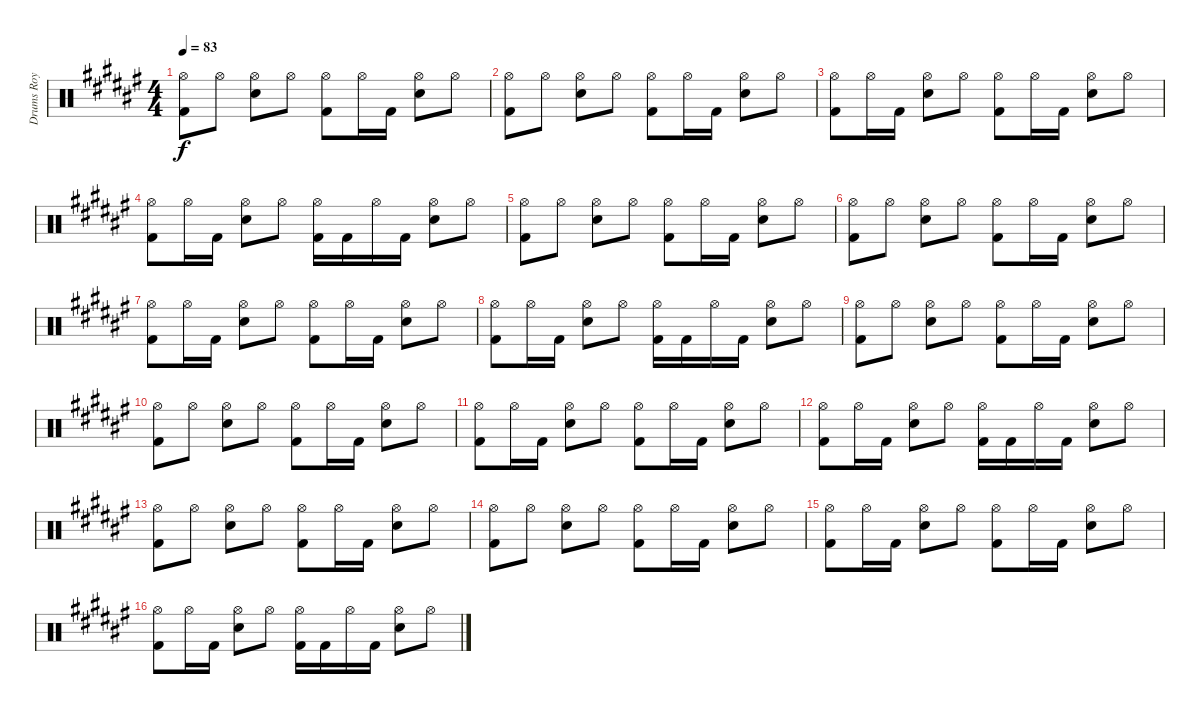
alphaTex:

\track ("Drums Roy" "Drums Roy") {instrument percussion}
\staff {score}
\articulation defaults
\ts (4 4)
\tempo 83
\clef neutral
\ks d#minor
("Hi-Hat (open)" "Kick (hit) 2").8{dy f} "Hi-Hat (open)".8 ("Hi-Hat (open)" "Electric Snare (hit)").8 "Hi-Hat (open)".8 ("Hi-Hat (open)" "Kick (hit) 2").8 "Hi-Hat (open)".16 "Kick (hit) 2".16 ("Hi-Hat (open)" "Electric Snare (hit)").8 "Hi-Hat (open)".8 |
("Hi-Hat (open)" "Kick (hit) 2").8 "Hi-Hat (open)".8 ("Hi-Hat (open)" "Electric Snare (hit)").8 "Hi-Hat (open)".8 ("Hi-Hat (open)" "Kick (hit) 2").8 "Hi-Hat (open)".16 "Kick (hit) 2".16 ("Hi-Hat (open)" "Electric Snare (hit)").8 "Hi-Hat (open)".8 |
("Hi-Hat (open)" "Kick (hit) 2").8 "Hi-Hat (open)".16 "Kick (hit) 2".16 ("Hi-Hat (open)" "Electric Snare (hit)").8 "Hi-Hat (open)".8 ("Hi-Hat (open)" "Kick (hit) 2").8 "Hi-Hat (open)".16 "Kick (hit) 2".16 ("Hi-Hat (open)" "Electric Snare (hit)").8 "Hi-Hat (open)".8 |
("Hi-Hat (open)" "Kick (hit) 2").8 "Hi-Hat (open)".16 "Kick (hit) 2".16 ("Hi-Hat (open)" "Electric Snare (hit)").8 "Hi-Hat (open)".8 ("Hi-Hat (open)" "Kick (hit) 2").16 "Kick (hit) 2".16 "Hi-Hat (open)".16 "Kick (hit) 2".16 ("Hi-Hat (open)" "Electric Snare (hit)").8 "Hi-Hat (open)".8 |
("Hi-Hat (open)" "Kick (hit) 2").8 "Hi-Hat (open)".8 ("Hi-Hat (open)" "Electric Snare (hit)").8 "Hi-Hat (open)".8 ("Hi-Hat (open)" "Kick (hit) 2").8 "Hi-Hat (open)".16 "Kick (hit) 2".16 ("Hi-Hat (open)" "Electric Snare (hit)").8 "Hi-Hat (open)".8 |
("Hi-Hat (open)" "Kick (hit) 2").8 "Hi-Hat (open)".8 ("Hi-Hat (open)" "Electric Snare (hit)").8 "Hi-Hat (open)".8 ("Hi-Hat (open)" "Kick (hit) 2").8 "Hi-Hat (open)".16 "Kick (hit) 2".16 ("Hi-Hat (open)" "Electric Snare (hit)").8 "Hi-Hat (open)".8 |
("Hi-Hat (open)" "Kick (hit) 2").8 "Hi-Hat (open)".16 "Kick (hit) 2".16 ("Hi-Hat (open)" "Electric Snare (hit)").8 "Hi-Hat (open)".8 ("Hi-Hat (open)" "Kick (hit) 2").8 "Hi-Hat (open)".16 "Kick (hit) 2".16 ("Hi-Hat (open)" "Electric Snare (hit)").8 "Hi-Hat (open)".8 |
("Hi-Hat (open)" "Kick (hit) 2").8 "Hi-Hat (open)".16 "Kick (hit) 2".16 ("Hi-Hat (open)" "Electric Snare (hit)").8 "Hi-Hat (open)".8 ("Hi-Hat (open)" "Kick (hit) 2").16 "Kick (hit) 2".16 "Hi-Hat (open)".16 "Kick (hit) 2".16 ("Hi-Hat (open)" "Electric Snare (hit)").8 "Hi-Hat (open)".8 |
("Hi-Hat (open)" "Kick (hit) 2").8 "Hi-Hat (open)".8 ("Hi-Hat (open)" "Electric Snare (hit)").8 "Hi-Hat (open)".8 ("Hi-Hat (open)" "Kick (hit) 2").8 "Hi-Hat (open)".16 "Kick (hit) 2".16 ("Hi-Hat (open)" "Electric Snare (hit)").8 "Hi-Hat (open)".8 |
("Hi-Hat (open)" "Kick (hit) 2").8 "Hi-Hat (open)".8 ("Hi-Hat (open)" "Electric Snare (hit)").8 "Hi-Hat (open)".8 ("Hi-Hat (open)" "Kick (hit) 2").8 "Hi-Hat (open)".16 "Kick (hit) 2".16 ("Hi-Hat (open)" "Electric Snare (hit)").8 "Hi-Hat (open)".8 |
("Hi-Hat (open)" "Kick (hit) 2").8 "Hi-Hat (open)".16 "Kick (hit) 2".16 ("Hi-Hat (open)" "Electric Snare (hit)").8 "Hi-Hat (open)".8 ("Hi-Hat (open)" "Kick (hit) 2").8 "Hi-Hat (open)".16 "Kick (hit) 2".16 ("Hi-Hat (open)" "Electric Snare (hit)").8 "Hi-Hat (open)".8 |
("Hi-Hat (open)" "Kick (hit) 2").8 "Hi-Hat (open)".16 "Kick (hit) 2".16 ("Hi-Hat (open)" "Electric Snare (hit)").8 "Hi-Hat (open)".8 ("Hi-Hat (open)" "Kick (hit) 2").16 "Kick (hit) 2".16 "Hi-Hat (open)".16 "Kick (hit) 2".16 ("Hi-Hat (open)" "Electric Snare (hit)").8 "Hi-Hat (open)".8 |
("Hi-Hat (open)" "Kick (hit) 2").8 "Hi-Hat (open)".8 ("Hi-Hat (open)" "Electric Snare (hit)").8 "Hi-Hat (open)".8 ("Hi-Hat (open)" "Kick (hit) 2").8 "Hi-Hat (open)".16 "Kick (hit) 2".16 ("Hi-Hat (open)" "Electric Snare (hit)").8 "Hi-Hat (open)".8 |
("Hi-Hat (open)" "Kick (hit) 2").8 "Hi-Hat (open)".8 ("Hi-Hat (open)" "Electric Snare (hit)").8 "Hi-Hat (open)".8 ("Hi-Hat (open)" "Kick (hit) 2").8 "Hi-Hat (open)".16 "Kick (hit) 2".16 ("Hi-Hat (open)" "Electric Snare (hit)").8 "Hi-Hat (open)".8 |
("Hi-Hat (open)" "Kick (hit) 2").8 "Hi-Hat (open)".16 "Kick (hit) 2".16 ("Hi-Hat (open)" "Electric Snare (hit)").8 "Hi-Hat (open)".8 ("Hi-Hat (open)" "Kick (hit) 2").8 "Hi-Hat (open)".16 "Kick (hit) 2".16 ("Hi-Hat (open)" "Electric Snare (hit)").8 "Hi-Hat (open)".8 |
("Hi-Hat (open)" "Kick (hit) 2").8 "Hi-Hat (open)".16 "Kick (hit) 2".16 ("Hi-Hat (open)" "Electric Snare (hit)").8 "Hi-Hat (open)".8 ("Hi-Hat (open)" "Kick (hit) 2").16 "Kick (hit) 2".16 "Hi-Hat (open)".16 "Kick (hit) 2".16 ("Hi-Hat (open)" "Electric Snare (hit)").8 "Hi-Hat (open)".8
